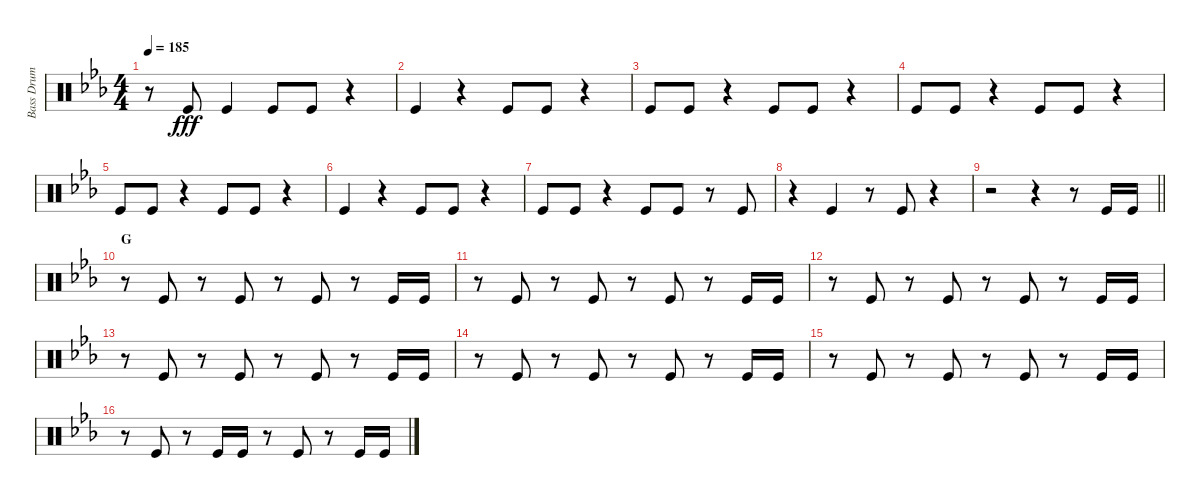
\track ("Bass Drum" "Bass Drum") {instrument percussion}
\staff {score}
\articulation defaults
\ts (4 4)
\tempo 185
\clef neutral
\ks eb
r.8{dy fff} "Kick (hit)".8 "Kick (hit)".4 "Kick (hit)".8 "Kick (hit)".8 r.4 |
"Kick (hit)".4 r.4 "Kick (hit)".8 "Kick (hit)".8 r.4 |
"Kick (hit)".8 "Kick (hit)".8 r.4 "Kick (hit)".8 "Kick (hit)".8 r.4 |
"Kick (hit)".8 "Kick (hit)".8 r.4 "Kick (hit)".8 "Kick (hit)".8 r.4 |
"Kick (hit)".8 "Kick (hit)".8 r.4 "Kick (hit)".8 "Kick (hit)".8 r.4 |
"Kick (hit)".4 r.4 "Kick (hit)".8 "Kick (hit)".8 r.4 |
"Kick (hit)".8 "Kick (hit)".8 r.4 "Kick (hit)".8 "Kick (hit)".8 r.8 "Kick (hit)".8 |
r.4 "Kick (hit)".4 r.8 "Kick (hit)".8 r.4 |
\barLineRight lightlight
r.2 r.4 r.8 "Kick (hit)".16 "Kick (hit)".16 |
\section ("" "G")
r.8 "Kick (hit)".8 r.8 "Kick (hit)".8 r.8 "Kick (hit)".8 r.8 "Kick (hit)".16 "Kick (hit)".16 |
r.8 "Kick (hit)".8 r.8 "Kick (hit)".8 r.8 "Kick (hit)".8 r.8 "Kick (hit)".16 "Kick (hit)".16 |
r.8 "Kick (hit)".8 r.8 "Kick (hit)".8 r.8 "Kick (hit)".8 r.8 "Kick (hit)".16 "Kick (hit)".16 |
r.8 "Kick (hit)".8 r.8 "Kick (hit)".8 r.8 "Kick (hit)".8 r.8 "Kick (hit)".16 "Kick (hit)".16 |
r.8 "Kick (hit)".8 r.8 "Kick (hit)".8 r.8 "Kick (hit)".8 r.8 "Kick (hit)".16 "Kick (hit)".16 |
r.8 "Kick (hit)".8 r.8 "Kick (hit)".8 r.8 "Kick (hit)".8 r.8 "Kick (hit)".16 "Kick (hit)".16 |
r.8 "Kick (hit)".8 r.8 "Kick (hit)".16 "Kick (hit)".16 r.8 "Kick (hit)".8 r.8 "Kick (hit)".16 "Kick (hit)".16
